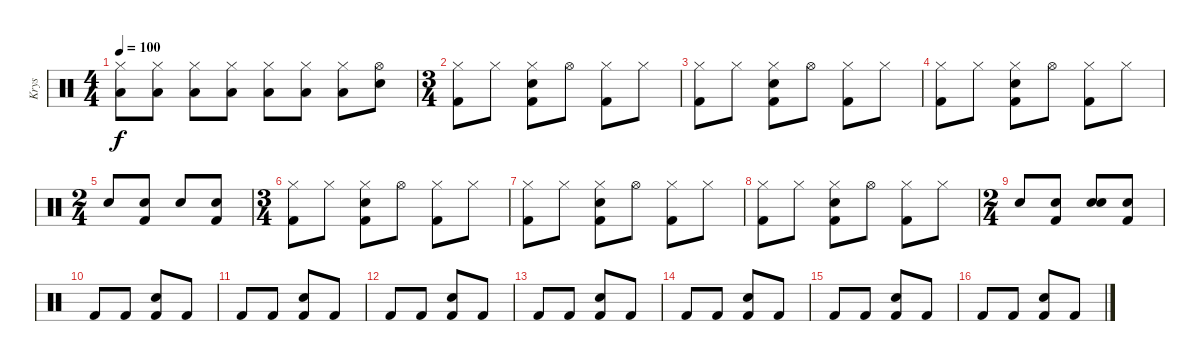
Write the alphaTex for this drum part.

\track ("Krys" "Krys") {instrument percussion}
\staff {score}
\articulation defaults
\ts (4 4)
\tempo 100
\clef neutral
\ks c
("Hi-Hat (closed)" "Low Floor Tom (hit)").8{dy f} ("Hi-Hat (closed)" "Low Floor Tom (hit)").8 ("Hi-Hat (closed)" "Low Floor Tom (hit)").8 ("Hi-Hat (closed)" "Low Floor Tom (hit)").8 ("Hi-Hat (closed)" "Low Floor Tom (hit)").8 ("Hi-Hat (closed)" "Low Floor Tom (hit)").8 ("Hi-Hat (closed)" "Low Floor Tom (hit)").8 ("Hi-Hat (open)" "Snare (hit) 2").8 |
\ts (3 4)
("Hi-Hat (closed)" "Kick (hit) 2").8 "Hi-Hat (closed)".8 ("Snare (hit) 2" "Hi-Hat (closed)" "Kick (hit) 2").8 "Hi-Hat (open)".8 ("Hi-Hat (closed)" "Kick (hit) 2").8 "Hi-Hat (closed)".8 |
("Hi-Hat (closed)" "Kick (hit) 2").8 "Hi-Hat (closed)".8 ("Snare (hit) 2" "Hi-Hat (closed)" "Kick (hit) 2").8 "Hi-Hat (open)".8 ("Hi-Hat (closed)" "Kick (hit) 2").8 "Hi-Hat (closed)".8 |
("Hi-Hat (closed)" "Kick (hit) 2").8 "Hi-Hat (closed)".8 ("Snare (hit) 2" "Hi-Hat (closed)" "Kick (hit) 2").8 "Hi-Hat (open)".8 ("Hi-Hat (closed)" "Kick (hit) 2").8 "Hi-Hat (closed)".8 |
\ts (2 4)
"Snare (hit) 2".8 ("Snare (hit) 2" "Kick (hit) 2").8 "Snare (hit) 2".8 ("Snare (hit) 2" "Kick (hit) 2").8 |
\ts (3 4)
("Hi-Hat (closed)" "Kick (hit) 2").8 "Hi-Hat (closed)".8 ("Snare (hit) 2" "Hi-Hat (closed)" "Kick (hit) 2").8 "Hi-Hat (open)".8 ("Hi-Hat (closed)" "Kick (hit) 2").8 "Hi-Hat (closed)".8 |
("Hi-Hat (closed)" "Kick (hit) 2").8 "Hi-Hat (closed)".8 ("Snare (hit) 2" "Hi-Hat (closed)" "Kick (hit) 2").8 "Hi-Hat (open)".8 ("Hi-Hat (closed)" "Kick (hit) 2").8 "Hi-Hat (closed)".8 |
("Hi-Hat (closed)" "Kick (hit) 2").8 "Hi-Hat (closed)".8 ("Snare (hit) 2" "Hi-Hat (closed)" "Kick (hit) 2").8 "Hi-Hat (open)".8 ("Hi-Hat (closed)" "Kick (hit) 2").8 "Hi-Hat (closed)".8 |
\ts (2 4)
"Snare (hit) 2".8 ("Snare (hit) 2" "Kick (hit) 2").8 ("Snare (hit) 2" "Snare (hit) 2").8 ("Snare (hit) 2" "Kick (hit) 2").8 |
"Kick (hit) 2".8 "Kick (hit) 2".8 ("Snare (hit) 2" "Kick (hit) 2").8 "Kick (hit) 2".8 |
"Kick (hit) 2".8 "Kick (hit) 2".8 ("Snare (hit) 2" "Kick (hit) 2").8 "Kick (hit) 2".8 |
"Kick (hit) 2".8 "Kick (hit) 2".8 ("Snare (hit) 2" "Kick (hit) 2").8 "Kick (hit) 2".8 |
"Kick (hit) 2".8 "Kick (hit) 2".8 ("Snare (hit) 2" "Kick (hit) 2").8 "Kick (hit) 2".8 |
"Kick (hit) 2".8 "Kick (hit) 2".8 ("Snare (hit) 2" "Kick (hit) 2").8 "Kick (hit) 2".8 |
"Kick (hit) 2".8 "Kick (hit) 2".8 ("Snare (hit) 2" "Kick (hit) 2").8 "Kick (hit) 2".8 |
"Kick (hit) 2".8 "Kick (hit) 2".8 ("Snare (hit) 2" "Kick (hit) 2").8 "Kick (hit) 2".8
